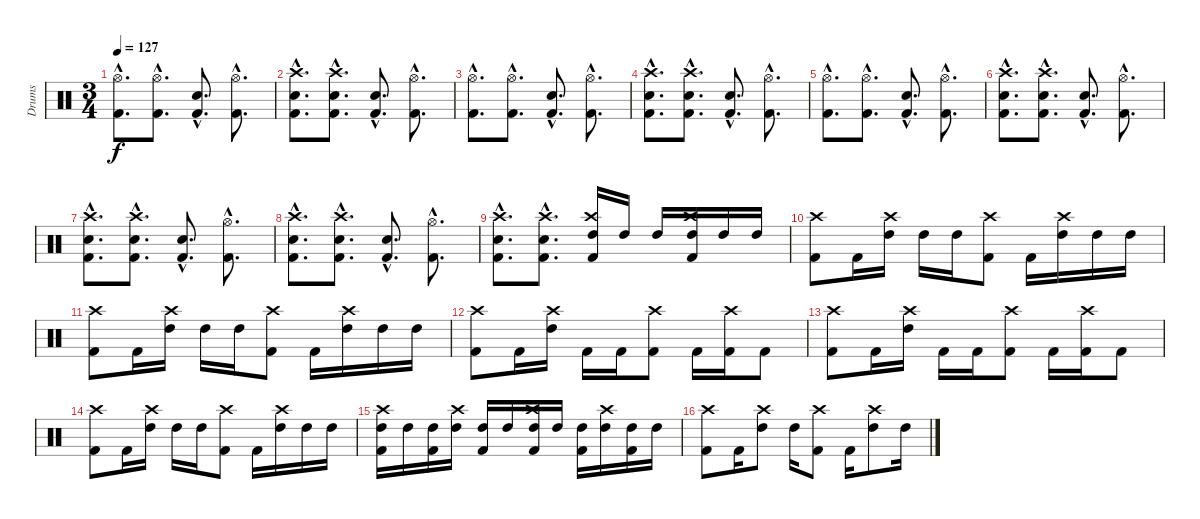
\track ("Drums" "Drums") {instrument percussion}
\staff {score}
\articulation defaults
\ts (3 4)
\tempo 127
\clef neutral
\ks c
("Hi-Hat (open)"{hac} "Kick (hit) 2"{hac}).8{d dy f} ("Hi-Hat (open)"{hac} "Kick (hit) 2"{hac}).8{d} ("Electric Snare (hit)"{hac} "Kick (hit) 2"{hac}).8{d} ("Hi-Hat (open)"{hac} "Kick (hit) 2"{hac}).8{d} |
("Crash high (hit)"{hac} "Electric Snare (hit)"{hac} "Kick (hit) 2"{hac}).8{d} ("Crash high (hit)"{hac} "Electric Snare (hit)"{hac} "Kick (hit) 2"{hac}).8{d} ("Electric Snare (hit)"{hac} "Kick (hit) 2"{hac}).8{d} ("Hi-Hat (open)"{hac} "Kick (hit) 2"{hac}).8{d} |
("Hi-Hat (open)"{hac} "Kick (hit) 2"{hac}).8{d} ("Hi-Hat (open)"{hac} "Kick (hit) 2"{hac}).8{d} ("Electric Snare (hit)"{hac} "Kick (hit) 2"{hac}).8{d} ("Hi-Hat (open)"{hac} "Kick (hit) 2"{hac}).8{d} |
("Crash high (hit)"{hac} "Electric Snare (hit)"{hac} "Kick (hit) 2"{hac}).8{d} ("Crash high (hit)"{hac} "Electric Snare (hit)"{hac} "Kick (hit) 2"{hac}).8{d} ("Electric Snare (hit)"{hac} "Kick (hit) 2"{hac}).8{d} ("Hi-Hat (open)"{hac} "Kick (hit) 2"{hac}).8{d} |
("Hi-Hat (open)"{hac} "Kick (hit) 2"{hac}).8{d} ("Hi-Hat (open)"{hac} "Kick (hit) 2"{hac}).8{d} ("Electric Snare (hit)"{hac} "Kick (hit) 2"{hac}).8{d} ("Hi-Hat (open)"{hac} "Kick (hit) 2"{hac}).8{d} |
("Crash high (hit)"{hac} "Electric Snare (hit)"{hac} "Kick (hit) 2"{hac}).8{d} ("Crash high (hit)"{hac} "Electric Snare (hit)"{hac} "Kick (hit) 2"{hac}).8{d} ("Electric Snare (hit)"{hac} "Kick (hit) 2"{hac}).8{d} ("Hi-Hat (open)"{hac} "Kick (hit) 2"{hac}).8{d} |
("Crash high (hit)"{hac} "Electric Snare (hit)"{hac} "Kick (hit) 2"{hac}).8{d} ("Crash high (hit)"{hac} "Electric Snare (hit)"{hac} "Kick (hit) 2"{hac}).8{d} ("Electric Snare (hit)"{hac} "Kick (hit) 2"{hac}).8{d} ("Hi-Hat (open)"{hac} "Kick (hit) 2"{hac}).8{d} |
("Crash high (hit)"{hac} "Electric Snare (hit)"{hac} "Kick (hit) 2"{hac}).8{d} ("Crash high (hit)"{hac} "Electric Snare (hit)"{hac} "Kick (hit) 2"{hac}).8{d} ("Electric Snare (hit)"{hac} "Kick (hit) 2"{hac}).8{d} ("Hi-Hat (open)"{hac} "Kick (hit) 2"{hac}).8{d} |
("Crash high (hit)"{hac} "Electric Snare (hit)"{hac} "Kick (hit) 2"{hac}).8{d} ("Crash high (hit)"{hac} "Electric Snare (hit)"{hac} "Kick (hit) 2"{hac}).8{d} ("Crash high (hit)" "High Tom (hit)" "Kick (hit) 2").16 "High Tom (hit)".16 "High Tom (hit)".16 ("Crash high (hit)" "High Tom (hit)" "Kick (hit) 2").16 "High Tom (hit)".16 "High Tom (hit)".16 |
("Crash high (hit)" "Kick (hit) 2").8 "Kick (hit) 2".16 ("Crash high (hit)" "High Tom (hit)").16 "High Tom (hit)".16 "High Tom (hit)".16 ("Crash high (hit)" "Kick (hit) 2").8 "Kick (hit) 2".16 ("Crash high (hit)" "High Tom (hit)").16 "High Tom (hit)".16 "High Tom (hit)".16 |
("Crash high (hit)" "Kick (hit) 2").8 "Kick (hit) 2".16 ("Crash high (hit)" "High Tom (hit)").16 "High Tom (hit)".16 "High Tom (hit)".16 ("Crash high (hit)" "Kick (hit) 2").8 "Kick (hit) 2".16 ("Crash high (hit)" "High Tom (hit)").16 "High Tom (hit)".16 "High Tom (hit)".16 |
("Crash high (hit)" "Kick (hit) 2").8 "Kick (hit) 2".16 ("Crash high (hit)" "High Tom (hit)").16 "Kick (hit) 2".16 "Kick (hit) 2".16 ("Crash high (hit)" "Kick (hit) 2").8 "Kick (hit) 2".16 ("Crash high (hit)" "Kick (hit) 2").16 "Kick (hit) 2".8 |
("Crash high (hit)" "Kick (hit) 2").8 "Kick (hit) 2".16 ("Crash high (hit)" "High Tom (hit)").16 "Kick (hit) 2".16 "Kick (hit) 2".16 ("Crash high (hit)" "Kick (hit) 2").8 "Kick (hit) 2".16 ("Crash high (hit)" "Kick (hit) 2").16 "Kick (hit) 2".8 |
("Crash high (hit)" "Kick (hit) 2").8 "Kick (hit) 2".16 ("Crash high (hit)" "High Tom (hit)").16 "High Tom (hit)".16 "High Tom (hit)".16 ("Crash high (hit)" "Kick (hit) 2").8 "Kick (hit) 2".16 ("Crash high (hit)" "High Tom (hit)").16 "High Tom (hit)".16 "High Tom (hit)".16 |
("Crash high (hit)" "High Tom (hit)" "Kick (hit) 2").16 "High Tom (hit)".16 ("High Tom (hit)" "Kick (hit) 2").16 ("Crash high (hit)" "High Tom (hit)").16 ("High Tom (hit)" "Kick (hit) 2").16 "High Tom (hit)".16 ("Crash high (hit)" "High Tom (hit)" "Kick (hit) 2").16 "High Tom (hit)".16 ("High Tom (hit)" "Kick (hit) 2").16 ("Crash high (hit)" "High Tom (hit)").16 ("High Tom (hit)" "Kick (hit) 2").16 "High Tom (hit)".16 |
("Crash high (hit)" "Kick (hit) 2").8 "Kick (hit) 2".16 ("Crash high (hit)" "High Tom (hit)").8 "High Tom (hit)".16 ("Crash high (hit)" "Kick (hit) 2").8 "Kick (hit) 2".16 ("Crash high (hit)" "High Tom (hit)").8 "High Tom (hit)".16
